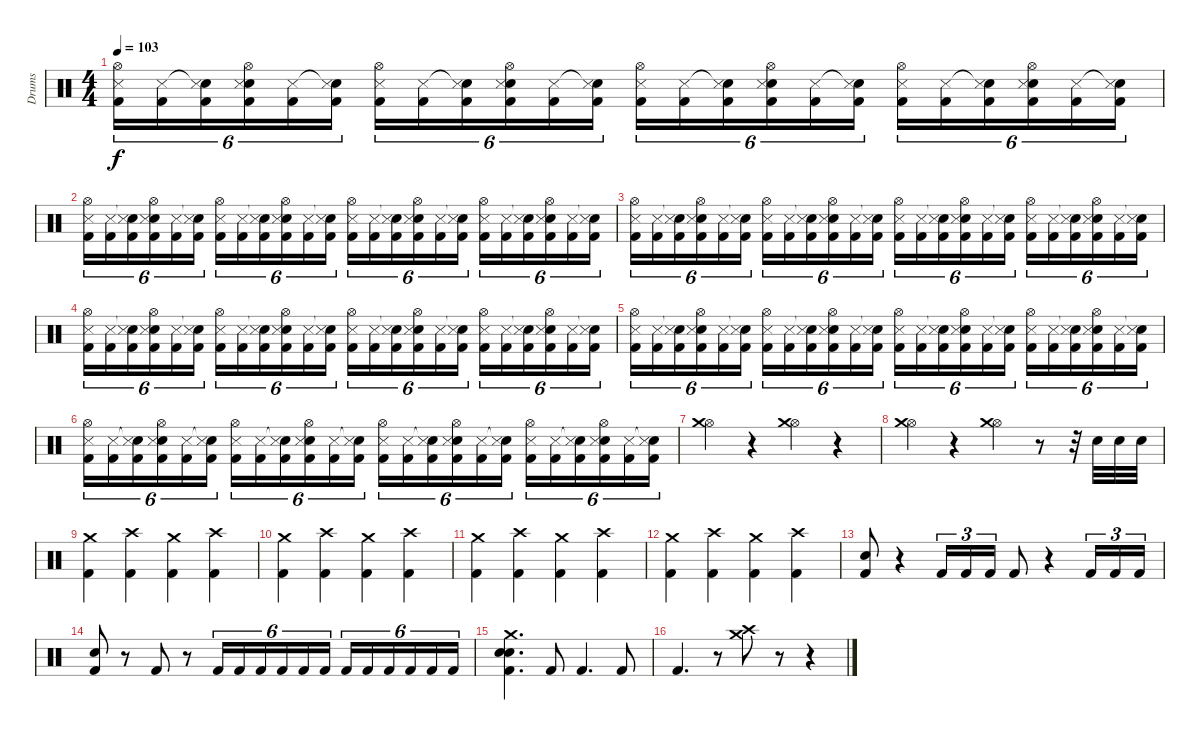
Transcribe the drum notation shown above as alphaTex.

\track ("Drums" "Drums") {instrument percussion}
\staff {score}
\articulation defaults
\ts (4 4)
\tempo 103
\clef neutral
\ks c
("Hi-Hat (open)" "Snare (side stick) 3" "Kick (hit) 2").16{tu (6 4) dy f} ("Snare (side stick) 3" "Kick (hit) 2").16{tu (6 4)} ("Snare (hit)"{t} "Snare (side stick) 3" "Kick (hit) 2").16{tu (6 4)} ("Hi-Hat (open)" "Electric Snare (hit)" "Snare (side stick) 3" "Kick (hit) 2").16{tu (6 4)} ("Snare (side stick) 3" "Kick (hit) 2").16{tu (6 4)} ("Snare (hit)"{t} "Snare (side stick) 3" "Kick (hit) 2").16{tu (6 4)} ("Hi-Hat (open)" "Snare (side stick) 3" "Kick (hit) 2").16{tu (6 4)} ("Snare (side stick) 3" "Kick (hit) 2").16{tu (6 4)} ("Snare (hit)"{t} "Snare (side stick) 3" "Kick (hit) 2").16{tu (6 4)} ("Hi-Hat (open)" "Electric Snare (hit)" "Snare (side stick) 3" "Kick (hit) 2").16{tu (6 4)} ("Snare (side stick) 3" "Kick (hit) 2").16{tu (6 4)} ("Snare (hit)"{t} "Snare (side stick) 3" "Kick (hit) 2").16{tu (6 4)} ("Hi-Hat (open)" "Snare (side stick) 3" "Kick (hit) 2").16{tu (6 4)} ("Snare (side stick) 3" "Kick (hit) 2").16{tu (6 4)} ("Snare (hit)"{t} "Snare (side stick) 3" "Kick (hit) 2").16{tu (6 4)} ("Hi-Hat (open)" "Electric Snare (hit)" "Snare (side stick) 3" "Kick (hit) 2").16{tu (6 4)} ("Snare (side stick) 3" "Kick (hit) 2").16{tu (6 4)} ("Snare (hit)"{t} "Snare (side stick) 3" "Kick (hit) 2").16{tu (6 4)} ("Hi-Hat (open)" "Snare (side stick) 3" "Kick (hit) 2").16{tu (6 4)} ("Snare (side stick) 3" "Kick (hit) 2").16{tu (6 4)} ("Snare (hit)"{t} "Snare (side stick) 3" "Kick (hit) 2").16{tu (6 4)} ("Hi-Hat (open)" "Electric Snare (hit)" "Snare (side stick) 3" "Kick (hit) 2").16{tu (6 4)} ("Snare (side stick) 3" "Kick (hit) 2").16{tu (6 4)} ("Snare (hit)"{t} "Snare (side stick) 3" "Kick (hit) 2").16{tu (6 4)} |
("Hi-Hat (open)" "Snare (side stick) 3" "Kick (hit) 2").16{tu (6 4)} ("Snare (side stick) 3" "Kick (hit) 2").16{tu (6 4)} ("Snare (hit)"{t} "Snare (side stick) 3" "Kick (hit) 2").16{tu (6 4)} ("Hi-Hat (open)" "Electric Snare (hit)" "Snare (side stick) 3" "Kick (hit) 2").16{tu (6 4)} ("Snare (side stick) 3" "Kick (hit) 2").16{tu (6 4)} ("Snare (hit)"{t} "Snare (side stick) 3" "Kick (hit) 2").16{tu (6 4)} ("Hi-Hat (open)" "Snare (side stick) 3" "Kick (hit) 2").16{tu (6 4)} ("Snare (side stick) 3" "Kick (hit) 2").16{tu (6 4)} ("Snare (hit)"{t} "Snare (side stick) 3" "Kick (hit) 2").16{tu (6 4)} ("Hi-Hat (open)" "Electric Snare (hit)" "Snare (side stick) 3" "Kick (hit) 2").16{tu (6 4)} ("Snare (side stick) 3" "Kick (hit) 2").16{tu (6 4)} ("Snare (hit)"{t} "Snare (side stick) 3" "Kick (hit) 2").16{tu (6 4)} ("Hi-Hat (open)" "Snare (side stick) 3" "Kick (hit) 2").16{tu (6 4)} ("Snare (side stick) 3" "Kick (hit) 2").16{tu (6 4)} ("Snare (hit)"{t} "Snare (side stick) 3" "Kick (hit) 2").16{tu (6 4)} ("Hi-Hat (open)" "Electric Snare (hit)" "Snare (side stick) 3" "Kick (hit) 2").16{tu (6 4)} ("Snare (side stick) 3" "Kick (hit) 2").16{tu (6 4)} ("Snare (hit)"{t} "Snare (side stick) 3" "Kick (hit) 2").16{tu (6 4)} ("Hi-Hat (open)" "Snare (side stick) 3" "Kick (hit) 2").16{tu (6 4)} ("Snare (side stick) 3" "Kick (hit) 2").16{tu (6 4)} ("Snare (hit)"{t} "Snare (side stick) 3" "Kick (hit) 2").16{tu (6 4)} ("Hi-Hat (open)" "Electric Snare (hit)" "Snare (side stick) 3" "Kick (hit) 2").16{tu (6 4)} ("Snare (side stick) 3" "Kick (hit) 2").16{tu (6 4)} ("Snare (hit)"{t} "Snare (side stick) 3" "Kick (hit) 2").16{tu (6 4)} |
("Hi-Hat (open)" "Snare (side stick) 3" "Kick (hit) 2").16{tu (6 4)} ("Snare (side stick) 3" "Kick (hit) 2").16{tu (6 4)} ("Snare (hit)"{t} "Snare (side stick) 3" "Kick (hit) 2").16{tu (6 4)} ("Hi-Hat (open)" "Electric Snare (hit)" "Snare (side stick) 3" "Kick (hit) 2").16{tu (6 4)} ("Snare (side stick) 3" "Kick (hit) 2").16{tu (6 4)} ("Snare (hit)"{t} "Snare (side stick) 3" "Kick (hit) 2").16{tu (6 4)} ("Hi-Hat (open)" "Snare (side stick) 3" "Kick (hit) 2").16{tu (6 4)} ("Snare (side stick) 3" "Kick (hit) 2").16{tu (6 4)} ("Snare (hit)"{t} "Snare (side stick) 3" "Kick (hit) 2").16{tu (6 4)} ("Hi-Hat (open)" "Electric Snare (hit)" "Snare (side stick) 3" "Kick (hit) 2").16{tu (6 4)} ("Snare (side stick) 3" "Kick (hit) 2").16{tu (6 4)} ("Snare (hit)"{t} "Snare (side stick) 3" "Kick (hit) 2").16{tu (6 4)} ("Hi-Hat (open)" "Snare (side stick) 3" "Kick (hit) 2").16{tu (6 4)} ("Snare (side stick) 3" "Kick (hit) 2").16{tu (6 4)} ("Snare (hit)"{t} "Snare (side stick) 3" "Kick (hit) 2").16{tu (6 4)} ("Hi-Hat (open)" "Electric Snare (hit)" "Snare (side stick) 3" "Kick (hit) 2").16{tu (6 4)} ("Snare (side stick) 3" "Kick (hit) 2").16{tu (6 4)} ("Snare (hit)"{t} "Snare (side stick) 3" "Kick (hit) 2").16{tu (6 4)} ("Hi-Hat (open)" "Snare (side stick) 3" "Kick (hit) 2").16{tu (6 4)} ("Snare (side stick) 3" "Kick (hit) 2").16{tu (6 4)} ("Snare (hit)"{t} "Snare (side stick) 3" "Kick (hit) 2").16{tu (6 4)} ("Hi-Hat (open)" "Electric Snare (hit)" "Snare (side stick) 3" "Kick (hit) 2").16{tu (6 4)} ("Snare (side stick) 3" "Kick (hit) 2").16{tu (6 4)} ("Snare (hit)"{t} "Snare (side stick) 3" "Kick (hit) 2").16{tu (6 4)} |
("Hi-Hat (open)" "Snare (side stick) 3" "Kick (hit) 2").16{tu (6 4)} ("Snare (side stick) 3" "Kick (hit) 2").16{tu (6 4)} ("Snare (hit)"{t} "Snare (side stick) 3" "Kick (hit) 2").16{tu (6 4)} ("Hi-Hat (open)" "Electric Snare (hit)" "Snare (side stick) 3" "Kick (hit) 2").16{tu (6 4)} ("Snare (side stick) 3" "Kick (hit) 2").16{tu (6 4)} ("Snare (hit)"{t} "Snare (side stick) 3" "Kick (hit) 2").16{tu (6 4)} ("Hi-Hat (open)" "Snare (side stick) 3" "Kick (hit) 2").16{tu (6 4)} ("Snare (side stick) 3" "Kick (hit) 2").16{tu (6 4)} ("Snare (hit)"{t} "Snare (side stick) 3" "Kick (hit) 2").16{tu (6 4)} ("Hi-Hat (open)" "Electric Snare (hit)" "Snare (side stick) 3" "Kick (hit) 2").16{tu (6 4)} ("Snare (side stick) 3" "Kick (hit) 2").16{tu (6 4)} ("Snare (hit)"{t} "Snare (side stick) 3" "Kick (hit) 2").16{tu (6 4)} ("Hi-Hat (open)" "Snare (side stick) 3" "Kick (hit) 2").16{tu (6 4)} ("Snare (side stick) 3" "Kick (hit) 2").16{tu (6 4)} ("Snare (hit)"{t} "Snare (side stick) 3" "Kick (hit) 2").16{tu (6 4)} ("Hi-Hat (open)" "Electric Snare (hit)" "Snare (side stick) 3" "Kick (hit) 2").16{tu (6 4)} ("Snare (side stick) 3" "Kick (hit) 2").16{tu (6 4)} ("Snare (hit)"{t} "Snare (side stick) 3" "Kick (hit) 2").16{tu (6 4)} ("Hi-Hat (open)" "Snare (side stick) 3" "Kick (hit) 2").16{tu (6 4)} ("Snare (side stick) 3" "Kick (hit) 2").16{tu (6 4)} ("Snare (hit)"{t} "Snare (side stick) 3" "Kick (hit) 2").16{tu (6 4)} ("Hi-Hat (open)" "Electric Snare (hit)" "Snare (side stick) 3" "Kick (hit) 2").16{tu (6 4)} ("Snare (side stick) 3" "Kick (hit) 2").16{tu (6 4)} ("Snare (hit)"{t} "Snare (side stick) 3" "Kick (hit) 2").16{tu (6 4)} |
("Hi-Hat (open)" "Snare (side stick) 3" "Kick (hit) 2").16{tu (6 4)} ("Snare (side stick) 3" "Kick (hit) 2").16{tu (6 4)} ("Snare (hit)"{t} "Snare (side stick) 3" "Kick (hit) 2").16{tu (6 4)} ("Hi-Hat (open)" "Electric Snare (hit)" "Snare (side stick) 3" "Kick (hit) 2").16{tu (6 4)} ("Snare (side stick) 3" "Kick (hit) 2").16{tu (6 4)} ("Snare (hit)"{t} "Snare (side stick) 3" "Kick (hit) 2").16{tu (6 4)} ("Hi-Hat (open)" "Snare (side stick) 3" "Kick (hit) 2").16{tu (6 4)} ("Snare (side stick) 3" "Kick (hit) 2").16{tu (6 4)} ("Snare (hit)"{t} "Snare (side stick) 3" "Kick (hit) 2").16{tu (6 4)} ("Hi-Hat (open)" "Electric Snare (hit)" "Snare (side stick) 3" "Kick (hit) 2").16{tu (6 4)} ("Snare (side stick) 3" "Kick (hit) 2").16{tu (6 4)} ("Snare (hit)"{t} "Snare (side stick) 3" "Kick (hit) 2").16{tu (6 4)} ("Hi-Hat (open)" "Snare (side stick) 3" "Kick (hit) 2").16{tu (6 4)} ("Snare (side stick) 3" "Kick (hit) 2").16{tu (6 4)} ("Snare (hit)"{t} "Snare (side stick) 3" "Kick (hit) 2").16{tu (6 4)} ("Hi-Hat (open)" "Electric Snare (hit)" "Snare (side stick) 3" "Kick (hit) 2").16{tu (6 4)} ("Snare (side stick) 3" "Kick (hit) 2").16{tu (6 4)} ("Snare (hit)"{t} "Snare (side stick) 3" "Kick (hit) 2").16{tu (6 4)} ("Hi-Hat (open)" "Snare (side stick) 3" "Kick (hit) 2").16{tu (6 4)} ("Snare (side stick) 3" "Kick (hit) 2").16{tu (6 4)} ("Snare (hit)"{t} "Snare (side stick) 3" "Kick (hit) 2").16{tu (6 4)} ("Hi-Hat (open)" "Electric Snare (hit)" "Snare (side stick) 3" "Kick (hit) 2").16{tu (6 4)} ("Snare (side stick) 3" "Kick (hit) 2").16{tu (6 4)} ("Snare (hit)"{t} "Snare (side stick) 3" "Kick (hit) 2").16{tu (6 4)} |
("Hi-Hat (open)" "Snare (side stick) 3" "Kick (hit) 2").16{tu (6 4)} ("Snare (side stick) 3" "Kick (hit) 2").16{tu (6 4)} ("Snare (hit)"{t} "Snare (side stick) 3" "Kick (hit) 2").16{tu (6 4)} ("Hi-Hat (open)" "Electric Snare (hit)" "Snare (side stick) 3" "Kick (hit) 2").16{tu (6 4)} ("Snare (side stick) 3" "Kick (hit) 2").16{tu (6 4)} ("Snare (hit)"{t} "Snare (side stick) 3" "Kick (hit) 2").16{tu (6 4)} ("Hi-Hat (open)" "Snare (side stick) 3" "Kick (hit) 2").16{tu (6 4)} ("Snare (side stick) 3" "Kick (hit) 2").16{tu (6 4)} ("Snare (hit)"{t} "Snare (side stick) 3" "Kick (hit) 2").16{tu (6 4)} ("Hi-Hat (open)" "Electric Snare (hit)" "Snare (side stick) 3" "Kick (hit) 2").16{tu (6 4)} ("Snare (side stick) 3" "Kick (hit) 2").16{tu (6 4)} ("Snare (hit)"{t} "Snare (side stick) 3" "Kick (hit) 2").16{tu (6 4)} ("Hi-Hat (open)" "Snare (side stick) 3" "Kick (hit) 2").16{tu (6 4)} ("Snare (side stick) 3" "Kick (hit) 2").16{tu (6 4)} ("Snare (hit)"{t} "Snare (side stick) 3" "Kick (hit) 2").16{tu (6 4)} ("Hi-Hat (open)" "Electric Snare (hit)" "Snare (side stick) 3" "Kick (hit) 2").16{tu (6 4)} ("Snare (side stick) 3" "Kick (hit) 2").16{tu (6 4)} ("Snare (hit)"{t} "Snare (side stick) 3" "Kick (hit) 2").16{tu (6 4)} ("Hi-Hat (open)" "Snare (side stick) 3" "Kick (hit) 2").16{tu (6 4)} ("Snare (side stick) 3" "Kick (hit) 2").16{tu (6 4)} ("Snare (hit)"{t} "Snare (side stick) 3" "Kick (hit) 2").16{tu (6 4)} ("Hi-Hat (open)" "Electric Snare (hit)" "Snare (side stick) 3" "Kick (hit) 2").16{tu (6 4)} ("Snare (side stick) 3" "Kick (hit) 2").16{tu (6 4)} ("Snare (hit)"{t} "Snare (side stick) 3" "Kick (hit) 2").16{tu (6 4)} |
("Hi-Hat (open)" "Crash medium (hit)").4 r.4 ("Hi-Hat (open)" "Crash medium (hit)").4 r.4 |
("Hi-Hat (open)" "Crash medium (hit)").4 r.4 ("Hi-Hat (open)" "Crash medium (hit)").4 r.8 r.32 "Electric Snare (hit)".32 "Electric Snare (hit)".32 "Electric Snare (hit)".32 |
("Crash medium (hit)" "Kick (hit) 2").4 ("Crash high (hit)" "Kick (hit) 2").4 ("Crash medium (hit)" "Kick (hit) 2").4 ("Crash high (hit)" "Kick (hit) 2").4 |
("Crash medium (hit)" "Kick (hit) 2").4 ("Crash high (hit)" "Kick (hit) 2").4 ("Crash medium (hit)" "Kick (hit) 2").4 ("Crash high (hit)" "Kick (hit) 2").4 |
("Crash medium (hit)" "Kick (hit) 2").4 ("Crash high (hit)" "Kick (hit) 2").4 ("Crash medium (hit)" "Kick (hit) 2").4 ("Crash high (hit)" "Kick (hit) 2").4 |
("Crash medium (hit)" "Kick (hit) 2").4 ("Crash high (hit)" "Kick (hit) 2").4 ("Crash medium (hit)" "Kick (hit) 2").4 ("Crash high (hit)" "Kick (hit) 2").4 |
("Electric Snare (hit)" "Kick (hit) 2").8 r.4 "Kick (hit) 2".16{tu (3 2)} "Kick (hit) 2".16{tu (3 2)} "Kick (hit) 2".16{tu (3 2)} "Kick (hit) 2".8 r.4 "Kick (hit) 2".16{tu (3 2)} "Kick (hit) 2".16{tu (3 2)} "Kick (hit) 2".16{tu (3 2)} |
("Electric Snare (hit)" "Kick (hit) 2").8 r.8 "Kick (hit) 2".8 r.8 "Kick (hit) 2".16{tu (6 4)} "Kick (hit) 2".16{tu (6 4)} "Kick (hit) 2".16{tu (6 4)} "Kick (hit) 2".16{tu (6 4)} "Kick (hit) 2".16{tu (6 4)} "Kick (hit) 2".16{tu (6 4)} "Kick (hit) 2".16{tu (6 4)} "Kick (hit) 2".16{tu (6 4)} "Kick (hit) 2".16{tu (6 4)} "Kick (hit) 2".16{tu (6 4)} "Kick (hit) 2".16{tu (6 4)} "Kick (hit) 2".16{tu (6 4)} |
("Snare (hit) 2" "Electric Snare (hit)" "Crash medium (hit)" "Kick (hit) 2").4{d} "Kick (hit) 2".8 "Kick (hit) 2".4{d} "Kick (hit) 2".8 |
"Kick (hit) 2".4{d} r.8 ("Crash medium (hit)" "Crash high (hit)").8 r.8 r.4
